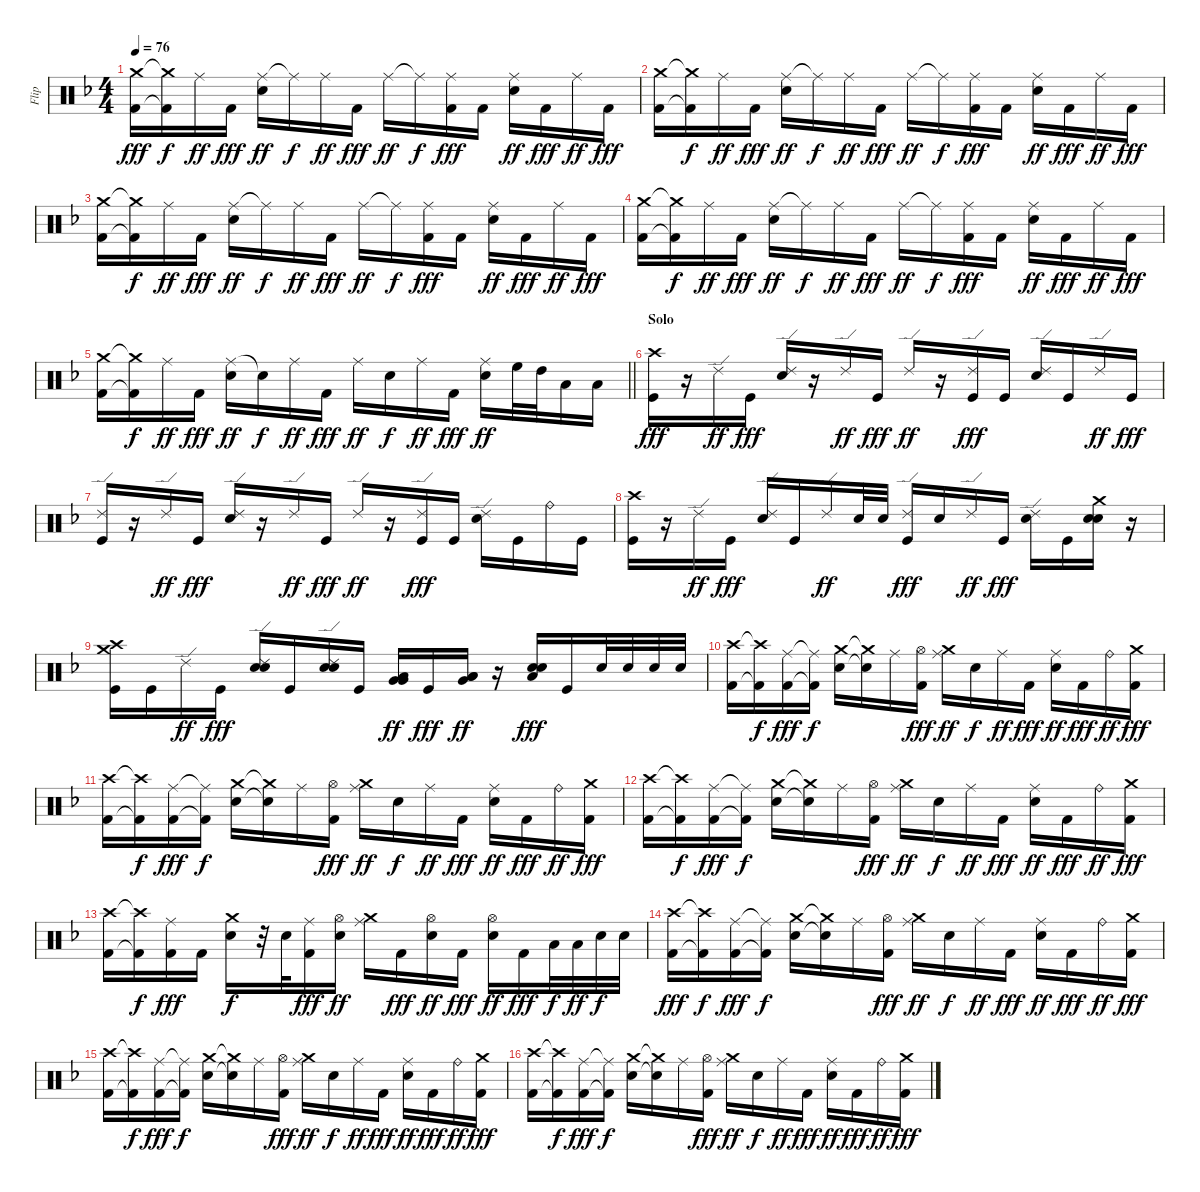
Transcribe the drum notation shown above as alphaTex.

\track ("Flip" "Flip") {instrument percussion}
\staff {score}
\articulation defaults
\ts (4 4)
\tempo 76
\clef neutral
\ks f
("Crash medium (hit)" "Kick (hit) 2").16{dy fff} ("Crash medium (hit)"{t} "Kick (hit) 2"{t}).16{dy f} "Ride (middle)".16{dy ff} "Kick (hit) 2".16{dy fff} ("Ride (middle)" "Snare (hit) 2").16{dy ff} "Ride (middle)"{t}.16{dy f} "Ride (middle)".16{dy ff} "Kick (hit) 2".16{dy fff} "Ride (middle)".16{dy ff} "Ride (middle)"{t}.16{dy f} ("Ride (middle)" "Kick (hit) 2").16{dy fff} "Kick (hit) 2".16 ("Ride (middle)" "Snare (hit) 2").16{dy ff} "Kick (hit) 2".16{dy fff} "Ride (middle)".16{dy ff} "Kick (hit) 2".16{dy fff} |
("Crash medium (hit)" "Kick (hit) 2").16 ("Crash medium (hit)"{t} "Kick (hit) 2"{t}).16{dy f} "Ride (middle)".16{dy ff} "Kick (hit) 2".16{dy fff} ("Ride (middle)" "Snare (hit) 2").16{dy ff} "Ride (middle)"{t}.16{dy f} "Ride (middle)".16{dy ff} "Kick (hit) 2".16{dy fff} "Ride (middle)".16{dy ff} "Ride (middle)"{t}.16{dy f} ("Ride (middle)" "Kick (hit) 2").16{dy fff} "Kick (hit) 2".16 ("Ride (middle)" "Snare (hit) 2").16{dy ff} "Kick (hit) 2".16{dy fff} "Ride (middle)".16{dy ff} "Kick (hit) 2".16{dy fff} |
("Crash medium (hit)" "Kick (hit) 2").16 ("Crash medium (hit)"{t} "Kick (hit) 2"{t}).16{dy f} "Ride (middle)".16{dy ff} "Kick (hit) 2".16{dy fff} ("Ride (middle)" "Snare (hit) 2").16{dy ff} "Ride (middle)"{t}.16{dy f} "Ride (middle)".16{dy ff} "Kick (hit) 2".16{dy fff} "Ride (middle)".16{dy ff} "Ride (middle)"{t}.16{dy f} ("Ride (middle)" "Kick (hit) 2").16{dy fff} "Kick (hit) 2".16 ("Ride (middle)" "Snare (hit) 2").16{dy ff} "Kick (hit) 2".16{dy fff} "Ride (middle)".16{dy ff} "Kick (hit) 2".16{dy fff} |
("Crash medium (hit)" "Kick (hit) 2").16 ("Crash medium (hit)"{t} "Kick (hit) 2"{t}).16{dy f} "Ride (middle)".16{dy ff} "Kick (hit) 2".16{dy fff} ("Ride (middle)" "Snare (hit) 2").16{dy ff} "Ride (middle)"{t}.16{dy f} "Ride (middle)".16{dy ff} "Kick (hit) 2".16{dy fff} "Ride (middle)".16{dy ff} "Ride (middle)"{t}.16{dy f} ("Ride (middle)" "Kick (hit) 2").16{dy fff} "Kick (hit) 2".16 ("Ride (middle)" "Snare (hit) 2").16{dy ff} "Kick (hit) 2".16{dy fff} "Ride (middle)".16{dy ff} "Kick (hit) 2".16{dy fff} |
\barLineRight lightlight
("Crash medium (hit)" "Kick (hit) 2").16 ("Crash medium (hit)"{t} "Kick (hit) 2"{t}).16{dy f} "Ride (middle)".16{dy ff} "Kick (hit) 2".16{dy fff} ("Ride (middle)" "Snare (hit) 2").16{dy ff} "Snare (hit) 2"{t}.16{dy f} "Ride (middle)".16{dy ff} "Kick (hit) 2".16{dy fff} "Ride (middle)".16{dy ff} "Snare (hit) 2".16{dy f} "Ride (middle)".16{dy ff} "Kick (hit) 2".16{dy fff} ("Ride (middle)" "Snare (hit) 2").16{dy ff} "High Floor Tom (hit)".32 "High Tom (hit)".32 "Low Tom (hit)".16 "Low Tom (hit)".16 |
\section ("" "Solo")
("Crash high (hit)" "Kick (hit)").16{dy fff} r.16 "Ride (edge) 2".16{dy ff} "Kick (hit)".16{dy fff} ("Ride (edge) 2" "Electric Snare (hit)").16 r.16 "Ride (edge) 2".16{dy ff} "Kick (hit)".16{dy fff} "Ride (edge) 2".16{dy ff} r.16 ("Ride (edge) 2" "Kick (hit)").16{dy fff} "Kick (hit)".16 ("Ride (edge) 2" "Electric Snare (hit)").16 "Kick (hit)".16 "Ride (edge) 2".16{dy ff} "Kick (hit)".16{dy fff} |
("Ride (edge) 2" "Kick (hit)").16 r.16 "Ride (edge) 2".16{dy ff} "Kick (hit)".16{dy fff} ("Ride (edge) 2" "Electric Snare (hit)").16 r.16 "Ride (edge) 2".16{dy ff} "Kick (hit)".16{dy fff} "Ride (edge) 2".16{dy ff} r.16 ("Ride (edge) 2" "Kick (hit)").16{dy fff} "Kick (hit)".16 ("Ride (edge) 2" "Electric Snare (hit)").16 "Kick (hit)".16 "Ride (bell)".16 "Kick (hit)".16 |
("Crash high (hit)" "Kick (hit)").16 r.16 "Ride (edge) 2".16{dy ff} "Kick (hit)".16{dy fff} ("Ride (edge) 2" "Electric Snare (hit)").16 "Kick (hit)".16 "Ride (edge) 2".16{dy ff} "Electric Snare (hit)".32 "Electric Snare (hit)".32 ("Ride (edge) 2" "Kick (hit)").16{dy fff} "Electric Snare (hit)".16 "Ride (edge) 2".16{dy ff} "Kick (hit)".16{dy fff} ("Ride (edge) 2" "Electric Snare (hit)").16 "Kick (hit)".16 ("Crash medium (hit)" "Electric Snare (hit)" "Electric Snare (hit)").16 r.16 |
("Crash high (hit)" "Crash medium (hit)" "Kick (hit)").16 "Kick (hit)".16 "Ride (edge) 2".16{dy ff} "Kick (hit)".16{dy fff} ("Ride (edge) 2" "Electric Snare (hit)" "Electric Snare (hit)").16 "Kick (hit)".16 ("Ride (edge) 2" "Electric Snare (hit)" "Electric Snare (hit)").16 "Kick (hit)".16 ("Very Low Tom (hit)" "Very Low Tom (hit)" "Low Floor Tom (hit)").16{dy ff} "Kick (hit)".16{dy fff} ("Low Floor Tom (hit)" "Very Low Tom (hit)" "Low Floor Tom (hit)").16{dy ff} r.16 ("Electric Snare (hit)" "Low Floor Tom (hit)" "Electric Snare (hit)").16{dy fff} "Kick (hit)".16 "Electric Snare (hit)".32 "Electric Snare (hit)".32 "Electric Snare (hit)".32 "Electric Snare (hit)".32 |
("Crash high (hit)" "Kick (hit) 2").16 ("Crash high (hit)"{t} "Kick (hit) 2"{t}).16{dy f} ("Ride (middle)" "Kick (hit) 2").16{dy fff} ("Ride (middle)"{t} "Kick (hit) 2"{t}).16{dy f} ("Crash medium (hit)" "Snare (hit) 2").16 ("Crash medium (hit)"{t} "Snare (hit) 2"{t}).16 "Ride (middle)".16 ("Hi-Hat (open)" "Kick (hit) 2").16{dy fff} ("Crash medium (hit)" "Ride (middle)").16{dy ff} "Snare (hit) 2".16{dy f} "Ride (middle)".16{dy ff} "Kick (hit) 2".16{dy fff} ("Ride (middle)" "Snare (hit) 2").16{dy ff} "Kick (hit) 2".16{dy fff} "Ride (bell)".16{dy ff} ("Crash medium (hit)" "Kick (hit) 2").16{dy fff} |
("Crash high (hit)" "Kick (hit) 2").16 ("Crash high (hit)"{t} "Kick (hit) 2"{t}).16{dy f} ("Ride (middle)" "Kick (hit) 2").16{dy fff} ("Ride (middle)"{t} "Kick (hit) 2"{t}).16{dy f} ("Crash medium (hit)" "Snare (hit) 2").16 ("Crash medium (hit)"{t} "Snare (hit) 2"{t}).16 "Ride (middle)".16 ("Hi-Hat (open)" "Kick (hit) 2").16{dy fff} ("Crash medium (hit)" "Ride (middle)").16{dy ff} "Snare (hit) 2".16{dy f} "Ride (middle)".16{dy ff} "Kick (hit) 2".16{dy fff} ("Ride (middle)" "Snare (hit) 2").16{dy ff} "Kick (hit) 2".16{dy fff} "Ride (bell)".16{dy ff} ("Crash medium (hit)" "Kick (hit) 2").16{dy fff} |
("Crash high (hit)" "Kick (hit) 2").16 ("Crash high (hit)"{t} "Kick (hit) 2"{t}).16{dy f} ("Ride (middle)" "Kick (hit) 2").16{dy fff} ("Ride (middle)"{t} "Kick (hit) 2"{t}).16{dy f} ("Crash medium (hit)" "Snare (hit) 2").16 ("Crash medium (hit)"{t} "Snare (hit) 2"{t}).16 "Ride (middle)".16 ("Hi-Hat (open)" "Kick (hit) 2").16{dy fff} ("Crash medium (hit)" "Ride (middle)").16{dy ff} "Snare (hit) 2".16{dy f} "Ride (middle)".16{dy ff} "Kick (hit) 2".16{dy fff} ("Ride (middle)" "Snare (hit) 2").16{dy ff} "Kick (hit) 2".16{dy fff} "Ride (bell)".16{dy ff} ("Crash medium (hit)" "Kick (hit) 2").16{dy fff} |
("Crash high (hit)" "Kick (hit) 2").16 ("Crash high (hit)"{t} "Kick (hit) 2"{t}).16{dy f} ("Ride (middle)" "Kick (hit) 2").16{dy fff} "Kick (hit) 2".16 ("Crash medium (hit)" "Snare (hit) 2").16{dy f} r.32 "Snare (hit) 2".32 ("Ride (middle)" "Kick (hit) 2").16{dy fff} ("Hi-Hat (open)" "Snare (hit) 2").16{dy ff} ("Crash medium (hit)" "Ride (middle)").16 "Kick (hit) 2".16{dy fff} ("Hi-Hat (open)" "Snare (hit) 2").16{dy ff} "Kick (hit) 2".16{dy fff} ("Hi-Hat (open)" "Snare (hit) 2").16{dy ff} "Kick (hit) 2".16{dy fff} "Low Tom (hit)".32{dy f} "Low Tom (hit)".32{dy ff} "Snare (hit) 2".32{dy f} "Snare (hit) 2".32 |
("Crash high (hit)" "Kick (hit) 2").16{dy fff} ("Crash high (hit)"{t} "Kick (hit) 2"{t}).16{dy f} ("Ride (middle)" "Kick (hit) 2").16{dy fff} ("Ride (middle)"{t} "Kick (hit) 2"{t}).16{dy f} ("Crash medium (hit)" "Snare (hit) 2").16 ("Crash medium (hit)"{t} "Snare (hit) 2"{t}).16 "Ride (middle)".16 ("Hi-Hat (open)" "Kick (hit) 2").16{dy fff} ("Crash medium (hit)" "Ride (middle)").16{dy ff} "Snare (hit) 2".16{dy f} "Ride (middle)".16{dy ff} "Kick (hit) 2".16{dy fff} ("Ride (middle)" "Snare (hit) 2").16{dy ff} "Kick (hit) 2".16{dy fff} "Ride (bell)".16{dy ff} ("Crash medium (hit)" "Kick (hit) 2").16{dy fff} |
("Crash high (hit)" "Kick (hit) 2").16 ("Crash high (hit)"{t} "Kick (hit) 2"{t}).16{dy f} ("Ride (middle)" "Kick (hit) 2").16{dy fff} ("Ride (middle)"{t} "Kick (hit) 2"{t}).16{dy f} ("Crash medium (hit)" "Snare (hit) 2").16 ("Crash medium (hit)"{t} "Snare (hit) 2"{t}).16 "Ride (middle)".16 ("Hi-Hat (open)" "Kick (hit) 2").16{dy fff} ("Crash medium (hit)" "Ride (middle)").16{dy ff} "Snare (hit) 2".16{dy f} "Ride (middle)".16{dy ff} "Kick (hit) 2".16{dy fff} ("Ride (middle)" "Snare (hit) 2").16{dy ff} "Kick (hit) 2".16{dy fff} "Ride (bell)".16{dy ff} ("Crash medium (hit)" "Kick (hit) 2").16{dy fff} |
("Crash high (hit)" "Kick (hit) 2").16 ("Crash high (hit)"{t} "Kick (hit) 2"{t}).16{dy f} ("Ride (middle)" "Kick (hit) 2").16{dy fff} ("Ride (middle)"{t} "Kick (hit) 2"{t}).16{dy f} ("Crash medium (hit)" "Snare (hit) 2").16 ("Crash medium (hit)"{t} "Snare (hit) 2"{t}).16 "Ride (middle)".16 ("Hi-Hat (open)" "Kick (hit) 2").16{dy fff} ("Crash medium (hit)" "Ride (middle)").16{dy ff} "Snare (hit) 2".16{dy f} "Ride (middle)".16{dy ff} "Kick (hit) 2".16{dy fff} ("Ride (middle)" "Snare (hit) 2").16{dy ff} "Kick (hit) 2".16{dy fff} "Ride (bell)".16{dy ff} ("Crash medium (hit)" "Kick (hit) 2").16{dy fff}
